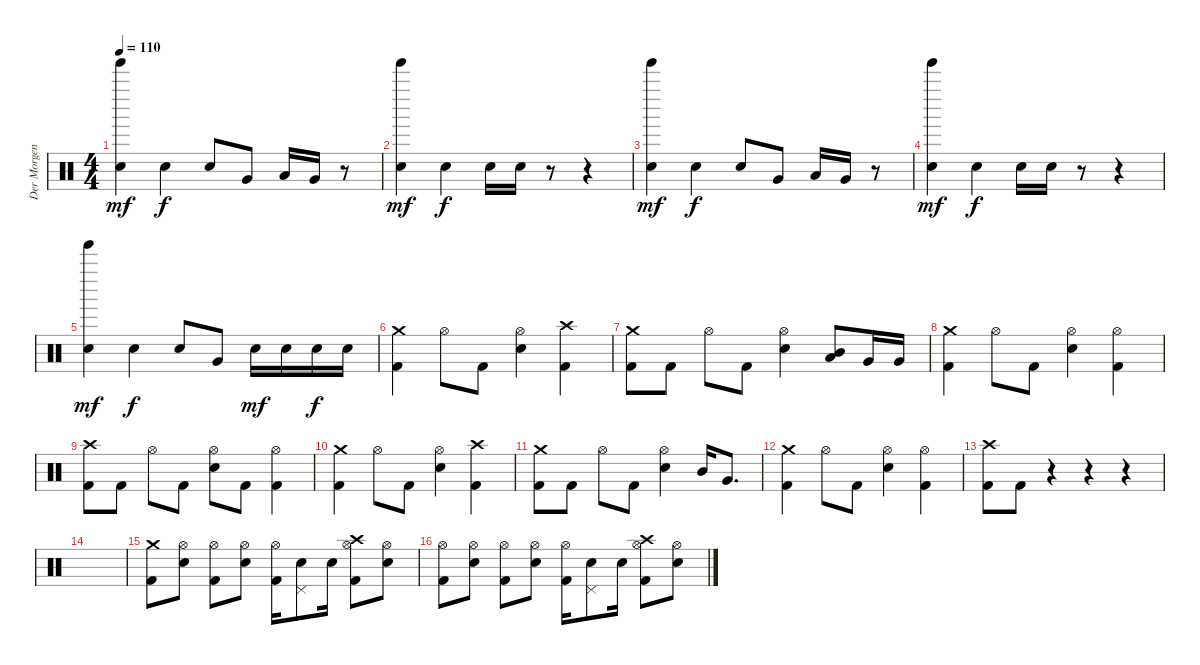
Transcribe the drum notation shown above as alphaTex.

\track ("Der Morgenstern" "Der Morgen") {instrument percussion}
\staff {score}
\articulation defaults
\ts (4 4)
\tempo 110
\clef neutral
\ks c
("Electric Snare (hit)" "Tinkle Bell (hit)").4{dy mf} "Electric Snare (hit)".4{dy f} "Electric Snare (hit)".8 "Very Low Tom (hit)".8 "Low Tom (hit)".16 "Very Low Tom (hit)".16 r.8 |
("Electric Snare (hit)" "Tinkle Bell (hit)").4{dy mf} "Electric Snare (hit)".4{dy f} "Electric Snare (hit)".16 "Electric Snare (hit)".16 r.8 r.4 |
("Electric Snare (hit)" "Tinkle Bell (hit)").4{dy mf} "Electric Snare (hit)".4{dy f} "Electric Snare (hit)".8 "Very Low Tom (hit)".8 "Low Tom (hit)".16 "Very Low Tom (hit)".16 r.8 |
("Electric Snare (hit)" "Tinkle Bell (hit)").4{dy mf} "Electric Snare (hit)".4{dy f} "Electric Snare (hit)".16 "Electric Snare (hit)".16 r.8 r.4 |
("Electric Snare (hit)" "Tinkle Bell (hit)").4{dy mf} "Electric Snare (hit)".4{dy f} "Electric Snare (hit)".8 "Very Low Tom (hit)".8 "Electric Snare (hit)".16{dy mf} "Electric Snare (hit)".16 "Electric Snare (hit)".16{dy f} "Electric Snare (hit)".16 |
("Crash medium (hit)" "Kick (hit) 2").4 "Hi-Hat (open)".8 "Kick (hit) 2".8 ("Hi-Hat (open)" "Electric Snare (hit)").4 ("Crash high (hit)" "Kick (hit) 2").4 |
("Crash medium (hit)" "Kick (hit) 2").8 "Kick (hit) 2".8 "Hi-Hat (open)".8 "Kick (hit) 2".8 ("Hi-Hat (open)" "Electric Snare (hit)").4 ("Mid Tom (hit)" "Low Tom (hit)").8 "Very Low Tom (hit)".16 "Very Low Tom (hit)".16 |
("Crash medium (hit)" "Kick (hit) 2").4 "Hi-Hat (open)".8 "Kick (hit) 2".8 ("Hi-Hat (open)" "Electric Snare (hit)").4 ("Hi-Hat (open)" "Kick (hit) 2").4 |
("Crash high (hit)" "Kick (hit) 2").8 "Kick (hit) 2".8 "Hi-Hat (open)".8 "Kick (hit) 2".8 ("Hi-Hat (open)" "Electric Snare (hit)").8 "Kick (hit) 2".8 ("Hi-Hat (open)" "Kick (hit) 2").4 |
("Crash medium (hit)" "Kick (hit) 2").4 "Hi-Hat (open)".8 "Kick (hit) 2".8 ("Hi-Hat (open)" "Electric Snare (hit)").4 ("Crash high (hit)" "Kick (hit) 2").4 |
("Crash medium (hit)" "Kick (hit) 2").8 "Kick (hit) 2".8 "Hi-Hat (open)".8 "Kick (hit) 2".8 ("Hi-Hat (open)" "Electric Snare (hit)").4 "Mid Tom (hit)".16 "Very Low Tom (hit)".8{d} |
("Crash medium (hit)" "Kick (hit) 2").4 "Hi-Hat (open)".8 "Kick (hit) 2".8 ("Hi-Hat (open)" "Electric Snare (hit)").4 ("Hi-Hat (open)" "Kick (hit) 2").4 |
("Crash high (hit)" "Kick (hit) 2").8 "Kick (hit) 2".8 r.4 r.4 r.4 |
|
("Crash medium (hit)" "Kick (hit) 2").8 ("Hi-Hat (open)" "Electric Snare (hit)").8 ("Hi-Hat (open)" "Kick (hit) 2").8 ("Hi-Hat (open)" "Electric Snare (hit)").8 ("Hi-Hat (open)" "Kick (hit) 2").16 ("Pedal Hi-Hat (hit)" "Electric Snare (hit)").8 "Electric Snare (hit)".16 ("Crash high (hit)" "Hi-Hat (open)" "Kick (hit) 2").8 ("Hi-Hat (open)" "Electric Snare (hit)").8 |
("Hi-Hat (open)" "Kick (hit) 2").8 ("Hi-Hat (open)" "Electric Snare (hit)").8 ("Hi-Hat (open)" "Kick (hit) 2").8 ("Hi-Hat (open)" "Electric Snare (hit)").8 ("Hi-Hat (open)" "Kick (hit) 2").16 ("Pedal Hi-Hat (hit)" "Electric Snare (hit)").8 "Electric Snare (hit)".16 ("Crash high (hit)" "Hi-Hat (open)" "Kick (hit) 2").8 ("Hi-Hat (open)" "Electric Snare (hit)").8
